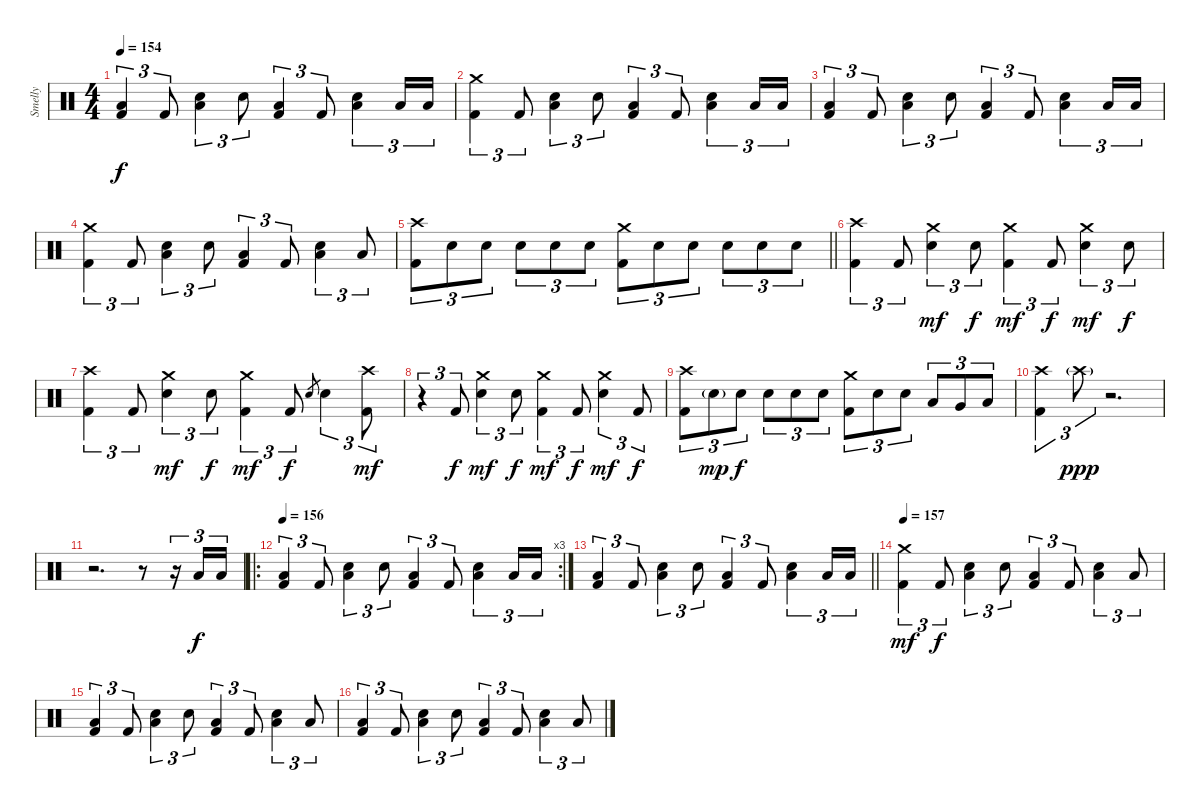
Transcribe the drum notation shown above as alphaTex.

\track ("Smelly" "Smelly") {instrument percussion}
\staff {score}
\articulation defaults
\ts (4 4)
\tempo 154
\clef neutral
\ks c
("Low Floor Tom (hit)" "Kick (hit) 2").4{tu (3 2) dy f} "Kick (hit) 2".8{tu (3 2)} ("Electric Snare (hit)" "Low Floor Tom (hit)").4{tu (3 2)} "Electric Snare (hit)".8{tu (3 2)} ("Low Floor Tom (hit)" "Kick (hit) 2").4{tu (3 2)} "Kick (hit) 2".8{tu (3 2)} ("Electric Snare (hit)" "Low Floor Tom (hit)").4{tu (3 2)} "Low Floor Tom (hit)".16{tu (3 2)} "Low Floor Tom (hit)".16{tu (3 2)} |
("Crash medium (hit)" "Kick (hit) 2").4{tu (3 2)} "Kick (hit) 2".8{tu (3 2)} ("Electric Snare (hit)" "Low Floor Tom (hit)").4{tu (3 2)} "Electric Snare (hit)".8{tu (3 2)} ("Low Floor Tom (hit)" "Kick (hit) 2").4{tu (3 2)} "Kick (hit) 2".8{tu (3 2)} ("Electric Snare (hit)" "Low Floor Tom (hit)").4{tu (3 2)} "Low Floor Tom (hit)".16{tu (3 2)} "Low Floor Tom (hit)".16{tu (3 2)} |
("Low Floor Tom (hit)" "Kick (hit) 2").4{tu (3 2)} "Kick (hit) 2".8{tu (3 2)} ("Electric Snare (hit)" "Low Floor Tom (hit)").4{tu (3 2)} "Electric Snare (hit)".8{tu (3 2)} ("Low Floor Tom (hit)" "Kick (hit) 2").4{tu (3 2)} "Kick (hit) 2".8{tu (3 2)} ("Electric Snare (hit)" "Low Floor Tom (hit)").4{tu (3 2)} "Low Floor Tom (hit)".16{tu (3 2)} "Low Floor Tom (hit)".16{tu (3 2)} |
("Crash medium (hit)" "Kick (hit) 2").4{tu (3 2)} "Kick (hit) 2".8{tu (3 2)} ("Electric Snare (hit)" "Low Floor Tom (hit)").4{tu (3 2)} "Electric Snare (hit)".8{tu (3 2)} ("Low Floor Tom (hit)" "Kick (hit) 2").4{tu (3 2)} "Kick (hit) 2".8{tu (3 2)} ("Electric Snare (hit)" "Low Floor Tom (hit)").4{tu (3 2)} "Low Floor Tom (hit)".8{tu (3 2)} |
\barLineRight lightlight
("Crash high (hit)" "Kick (hit) 2").8{tu (3 2)} "Electric Snare (hit)".8{tu (3 2)} "Electric Snare (hit)".8{tu (3 2)} "Electric Snare (hit)".8{tu (3 2)} "Electric Snare (hit)".8{tu (3 2)} "Electric Snare (hit)".8{tu (3 2)} ("Crash medium (hit)" "Kick (hit) 2").8{tu (3 2)} "Electric Snare (hit)".8{tu (3 2)} "Electric Snare (hit)".8{tu (3 2)} "Electric Snare (hit)".8{tu (3 2)} "Electric Snare (hit)".8{tu (3 2)} "Electric Snare (hit)".8{tu (3 2)} |
\section ("" "")
("Crash high (hit)" "Kick (hit) 2").4{tu (3 2)} "Kick (hit) 2".8{tu (3 2)} ("Crash medium (hit)" "Electric Snare (hit)").4{tu (3 2) dy mf} "Electric Snare (hit)".8{tu (3 2) dy f} ("Crash medium (hit)" "Kick (hit) 2").4{tu (3 2) dy mf} "Kick (hit) 2".8{tu (3 2) dy f} ("Crash medium (hit)" "Electric Snare (hit)").4{tu (3 2) dy mf} "Electric Snare (hit)".8{tu (3 2) dy f} |
("Crash high (hit)" "Kick (hit) 2").4{tu (3 2)} "Kick (hit) 2".8{tu (3 2)} ("Crash medium (hit)" "Electric Snare (hit)").4{tu (3 2) dy mf} "Electric Snare (hit)".8{tu (3 2) dy f} ("Crash medium (hit)" "Kick (hit) 2").4{tu (3 2) dy mf} "Kick (hit) 2".8{tu (3 2) dy f} "Electric Snare (hit)".8{gr} "Electric Snare (hit)".4{tu (3 2)} ("Crash high (hit)" "Kick (hit) 2").8{tu (3 2) dy mf} |
r.4{tu (3 2)} "Kick (hit) 2".8{tu (3 2) dy f} ("Crash medium (hit)" "Electric Snare (hit)").4{tu (3 2) dy mf} "Electric Snare (hit)".8{tu (3 2) dy f} ("Crash medium (hit)" "Kick (hit) 2").4{tu (3 2) dy mf} "Kick (hit) 2".8{tu (3 2) dy f} ("Crash medium (hit)" "Electric Snare (hit)").4{tu (3 2) dy mf} "Kick (hit) 2".8{tu (3 2) dy f} |
("Crash high (hit)" "Kick (hit) 2").8{tu (3 2)} "Electric Snare (hit)"{g}.8{tu (3 2) dy mp} "Electric Snare (hit)".8{tu (3 2) dy f} "Electric Snare (hit)".8{tu (3 2)} "Electric Snare (hit)".8{tu (3 2)} "Electric Snare (hit)".8{tu (3 2)} ("Crash medium (hit)" "Kick (hit) 2").8{tu (3 2)} "Electric Snare (hit)".8{tu (3 2)} "Electric Snare (hit)".8{tu (3 2)} "Low Tom (hit)".8{tu (3 2)} "Very Low Tom (hit)".8{tu (3 2)} "Low Floor Tom (hit)".8{tu (3 2)} |
("Crash high (hit)" "Kick (hit) 2").4{tu (3 2)} "Crash high (hit)"{g}.8{tu (3 2) dy ppp} r.2{d} |
r.2{d} r.8 r.16{tu (3 2)} "Low Floor Tom (hit)".16{tu (3 2) dy f} "Low Floor Tom (hit)".16{tu (3 2)} |
\ro
\rc 3
\tempo 156
("Low Floor Tom (hit)" "Kick (hit) 2").4{tu (3 2)} "Kick (hit) 2".8{tu (3 2)} ("Electric Snare (hit)" "Low Floor Tom (hit)").4{tu (3 2)} "Electric Snare (hit)".8{tu (3 2)} ("Low Floor Tom (hit)" "Kick (hit) 2").4{tu (3 2)} "Kick (hit) 2".8{tu (3 2)} ("Electric Snare (hit)" "Low Floor Tom (hit)").4{tu (3 2)} "Low Floor Tom (hit)".16{tu (3 2)} "Low Floor Tom (hit)".16{tu (3 2)} |
\barLineRight lightlight
("Low Floor Tom (hit)" "Kick (hit) 2").4{tu (3 2)} "Kick (hit) 2".8{tu (3 2)} ("Electric Snare (hit)" "Low Floor Tom (hit)").4{tu (3 2)} "Electric Snare (hit)".8{tu (3 2)} ("Low Floor Tom (hit)" "Kick (hit) 2").4{tu (3 2)} "Kick (hit) 2".8{tu (3 2)} ("Electric Snare (hit)" "Low Floor Tom (hit)").4{tu (3 2)} "Low Floor Tom (hit)".16{tu (3 2)} "Low Floor Tom (hit)".16{tu (3 2)} |
\section ("" "")
\tempo 157
("Crash medium (hit)" "Kick (hit) 2").4{tu (3 2) dy mf} "Kick (hit) 2".8{tu (3 2) dy f} ("Electric Snare (hit)" "Low Floor Tom (hit)").4{tu (3 2)} "Electric Snare (hit)".8{tu (3 2)} ("Low Floor Tom (hit)" "Kick (hit) 2").4{tu (3 2)} "Kick (hit) 2".8{tu (3 2)} ("Electric Snare (hit)" "Low Floor Tom (hit)").4{tu (3 2)} "Low Floor Tom (hit)".8{tu (3 2)} |
("Low Floor Tom (hit)" "Kick (hit) 2").4{tu (3 2)} "Kick (hit) 2".8{tu (3 2)} ("Electric Snare (hit)" "Low Floor Tom (hit)").4{tu (3 2)} "Electric Snare (hit)".8{tu (3 2)} ("Low Floor Tom (hit)" "Kick (hit) 2").4{tu (3 2)} "Kick (hit) 2".8{tu (3 2)} ("Electric Snare (hit)" "Low Floor Tom (hit)").4{tu (3 2)} "Low Floor Tom (hit)".8{tu (3 2)} |
("Low Floor Tom (hit)" "Kick (hit) 2").4{tu (3 2)} "Kick (hit) 2".8{tu (3 2)} ("Electric Snare (hit)" "Low Floor Tom (hit)").4{tu (3 2)} "Electric Snare (hit)".8{tu (3 2)} ("Low Floor Tom (hit)" "Kick (hit) 2").4{tu (3 2)} "Kick (hit) 2".8{tu (3 2)} ("Electric Snare (hit)" "Low Floor Tom (hit)").4{tu (3 2)} "Low Floor Tom (hit)".8{tu (3 2)}
